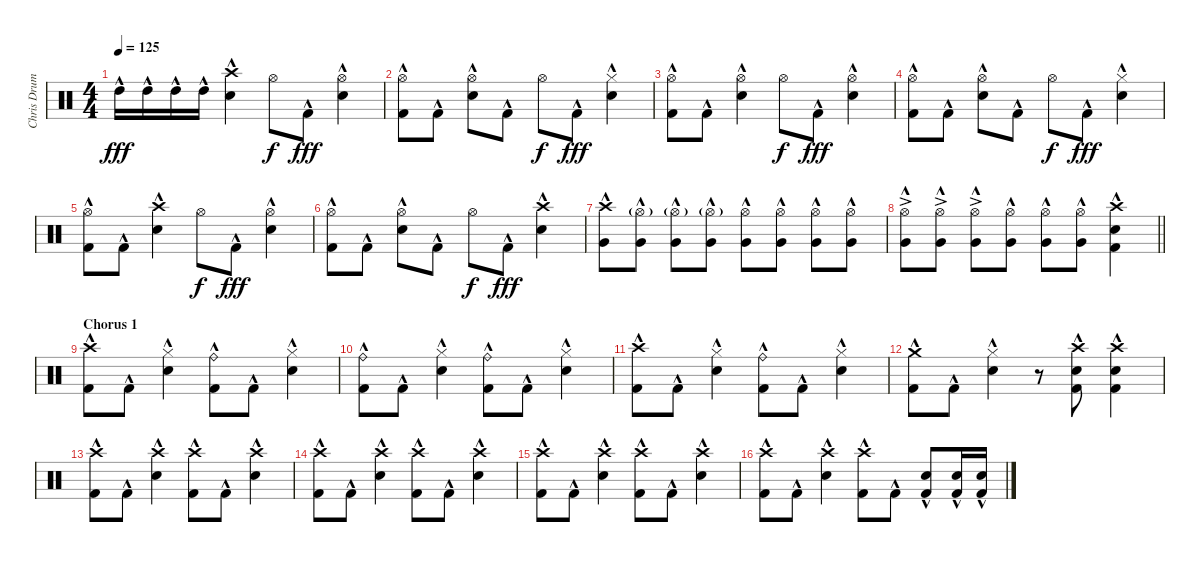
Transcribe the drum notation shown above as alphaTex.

\track ("Chris Drums" "Chris Drum") {instrument percussion}
\staff {score}
\articulation defaults
\ts (4 4)
\tempo 125
\clef neutral
\ks c "High Tom (hit)"{hac}.16{dy fff} "High Tom (hit)"{hac}.16 "High Tom (hit)"{hac}.16 "High Tom (hit)"{hac}.16
("Crash high (hit)"{hac} "Snare (hit) 2"{hac}).4 "Hi-Hat (open)".8{dy f} "Kick (hit) 2"{hac}.8{dy fff} ("Hi-Hat (open)" "Snare (hit) 2"{hac}).4 |
("Hi-Hat (open)" "Kick (hit) 2"{hac}).8 "Kick (hit) 2"{hac}.8 ("Hi-Hat (open)" "Snare (hit) 2"{hac}).8 "Kick (hit) 2"{hac}.8 "Hi-Hat (open)".8{dy f} "Kick (hit) 2"{hac}.8{dy fff} ("Hi-Hat (closed)" "Snare (hit) 2"{hac}).4 |
("Hi-Hat (open)" "Kick (hit) 2"{hac}).8 "Kick (hit) 2"{hac}.8 ("Hi-Hat (open)" "Snare (hit) 2"{hac}).4 "Hi-Hat (open)".8{dy f} "Kick (hit) 2"{hac}.8{dy fff} ("Hi-Hat (open)" "Snare (hit) 2"{hac}).4 |
("Hi-Hat (open)" "Kick (hit) 2"{hac}).8 "Kick (hit) 2"{hac}.8 ("Hi-Hat (open)" "Snare (hit) 2"{hac}).8 "Kick (hit) 2"{hac}.8 "Hi-Hat (open)".8{dy f} "Kick (hit) 2"{hac}.8{dy fff} ("Hi-Hat (closed)" "Snare (hit) 2"{hac}).4 |
("Hi-Hat (open)" "Kick (hit) 2"{hac}).8 "Kick (hit) 2"{hac}.8 ("Crash high (hit)"{hac} "Snare (hit) 2"{hac}).4 "Hi-Hat (open)".8{dy f} "Kick (hit) 2"{hac}.8{dy fff} ("Hi-Hat (open)" "Snare (hit) 2"{hac}).4 |
("Hi-Hat (open)" "Kick (hit) 2"{hac}).8 "Kick (hit) 2"{hac}.8 ("Hi-Hat (open)" "Snare (hit) 2"{hac}).8 "Kick (hit) 2"{hac}.8 "Hi-Hat (open)".8{dy f} "Kick (hit) 2"{hac}.8{dy fff} ("Crash high (hit)"{hac} "Snare (hit) 2"{hac}).4 |
("Crash high (hit)"{hac} "Very Low Tom (hit)"{hac}).8 ("Hi-Hat (open)"{g} "Very Low Tom (hit)"{hac}).8 ("Hi-Hat (open)"{g} "Very Low Tom (hit)"{hac}).8 ("Hi-Hat (open)"{g} "Very Low Tom (hit)"{hac}).8 ("Hi-Hat (open)" "Very Low Tom (hit)"{hac}).8 ("Hi-Hat (open)" "Very Low Tom (hit)"{hac}).8 ("Hi-Hat (open)" "Very Low Tom (hit)"{hac}).8 ("Hi-Hat (open)" "Very Low Tom (hit)"{hac}).8 |
\barLineRight lightlight
("Hi-Hat (open)"{ac} "Very Low Tom (hit)"{hac}).8 ("Hi-Hat (open)"{ac} "Very Low Tom (hit)"{hac}).8 ("Hi-Hat (open)"{ac} "Very Low Tom (hit)"{hac}).8 ("Hi-Hat (open)"{hac} "Very Low Tom (hit)"{hac}).8 ("Hi-Hat (open)"{hac} "Very Low Tom (hit)"{hac}).8 ("Hi-Hat (open)"{hac} "Very Low Tom (hit)"{hac}).8 ("Crash high (hit)" "Snare (hit) 2"{hac} "Kick (hit) 2"{hac}).4 |
\section ("" "Chorus 1")
("Crash high (hit)"{hac} "Kick (hit) 2"{hac}).8 "Kick (hit) 2"{hac}.8 ("Hi-Hat (closed)"{hac} "Snare (hit) 2"{hac}).4 ("Ride (bell)"{hac} "Kick (hit) 2"{hac}).8 "Kick (hit) 2"{hac}.8 ("Hi-Hat (closed)"{hac} "Snare (hit) 2"{hac}).4 |
("Ride (bell)"{hac} "Kick (hit) 2"{hac}).8 "Kick (hit) 2"{hac}.8 ("Hi-Hat (closed)"{hac} "Snare (hit) 2"{hac}).4 ("Ride (bell)"{hac} "Kick (hit) 2"{hac}).8 "Kick (hit) 2"{hac}.8 ("Hi-Hat (closed)"{hac} "Snare (hit) 2"{hac}).4 |
("Crash high (hit)"{hac} "Kick (hit) 2"{hac}).8 "Kick (hit) 2"{hac}.8 ("Hi-Hat (closed)"{hac} "Snare (hit) 2"{hac}).4 ("Ride (bell)"{hac} "Kick (hit) 2"{hac}).8 "Kick (hit) 2"{hac}.8 ("Hi-Hat (closed)"{hac} "Snare (hit) 2"{hac}).4 |
("Crash medium (hit)"{hac} "Kick (hit) 2"{hac}).8 "Kick (hit) 2"{hac}.8 ("Hi-Hat (closed)"{hac} "Snare (hit) 2"{hac}).4 r.8 ("Crash high (hit)" "Snare (hit) 2"{hac} "Kick (hit) 2"{hac}).8 ("Crash high (hit)" "Snare (hit) 2"{hac} "Kick (hit) 2"{hac}).4 |
("Crash high (hit)"{hac} "Kick (hit) 2"{hac}).8 "Kick (hit) 2"{hac}.8 ("Crash high (hit)"{hac} "Snare (hit) 2"{hac}).4 ("Crash high (hit)"{hac} "Kick (hit) 2"{hac}).8 "Kick (hit) 2"{hac}.8 ("Crash high (hit)"{hac} "Snare (hit) 2"{hac}).4 |
("Crash high (hit)"{hac} "Kick (hit) 2"{hac}).8 "Kick (hit) 2"{hac}.8 ("Crash high (hit)"{hac} "Snare (hit) 2"{hac}).4 ("Crash high (hit)"{hac} "Kick (hit) 2"{hac}).8 "Kick (hit) 2"{hac}.8 ("Crash high (hit)"{hac} "Snare (hit) 2"{hac}).4 |
("Crash high (hit)"{hac} "Kick (hit) 2"{hac}).8 "Kick (hit) 2"{hac}.8 ("Crash high (hit)"{hac} "Snare (hit) 2"{hac}).4 ("Crash high (hit)"{hac} "Kick (hit) 2"{hac}).8 "Kick (hit) 2"{hac}.8 ("Crash high (hit)"{hac} "Snare (hit) 2"{hac}).4 |
("Crash high (hit)"{hac} "Kick (hit) 2"{hac}).8 "Kick (hit) 2"{hac}.8 ("Crash high (hit)"{hac} "Snare (hit) 2"{hac}).4 ("Crash high (hit)"{hac} "Kick (hit) 2"{hac}).8 "Kick (hit) 2"{hac}.8 ("Snare (hit) 2"{hac} "Kick (hit) 2"{hac}).8 ("Snare (hit) 2"{hac} "Kick (hit) 2"{hac}).16 ("Snare (hit) 2"{hac} "Kick (hit) 2"{hac}).16
